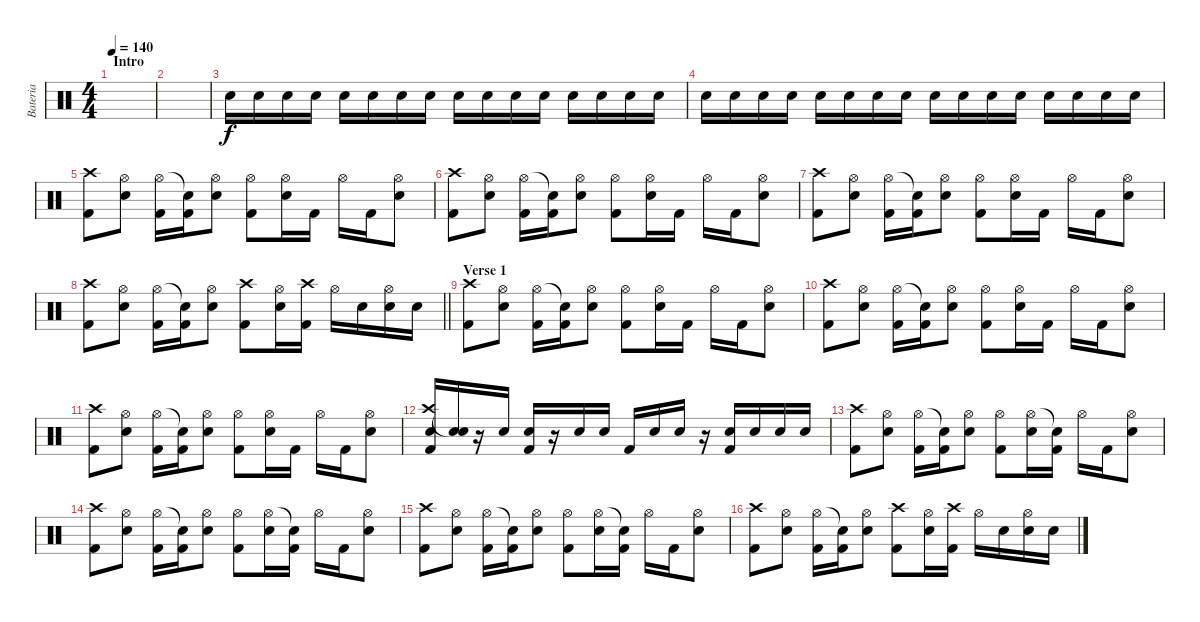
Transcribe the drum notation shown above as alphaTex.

\track ("Bateria" "Bateria") {instrument percussion}
\staff {score}
\articulation defaults
\ts (4 4)
\section ("" "Intro")
\tempo 140
\clef neutral
\ks c
|
|
"Electric Snare (hit)".16 "Electric Snare (hit)".16 "Electric Snare (hit)".16 "Electric Snare (hit)".16 "Electric Snare (hit)".16 "Electric Snare (hit)".16 "Electric Snare (hit)".16 "Electric Snare (hit)".16 "Electric Snare (hit)".16 "Electric Snare (hit)".16 "Electric Snare (hit)".16 "Electric Snare (hit)".16 "Electric Snare (hit)".16 "Electric Snare (hit)".16 "Electric Snare (hit)".16 "Electric Snare (hit)".16 |
"Electric Snare (hit)".16 "Electric Snare (hit)".16 "Electric Snare (hit)".16 "Electric Snare (hit)".16 "Electric Snare (hit)".16 "Electric Snare (hit)".16 "Electric Snare (hit)".16 "Electric Snare (hit)".16 "Electric Snare (hit)".16 "Electric Snare (hit)".16 "Electric Snare (hit)".16 "Electric Snare (hit)".16 "Electric Snare (hit)".16 "Electric Snare (hit)".16 "Electric Snare (hit)".16 "Electric Snare (hit)".16 |
("Crash high (hit)" "Kick (hit) 2").8 ("Hi-Hat (open)" "Electric Snare (hit)").8 ("Hi-Hat (open)" "Kick (hit) 2").16 ("Snare (hit)"{t} "Kick (hit) 2").16 ("Hi-Hat (open)" "Electric Snare (hit)").8 ("Hi-Hat (open)" "Kick (hit) 2").8 ("Hi-Hat (open)" "Electric Snare (hit)").16 "Kick (hit) 2".16 "Hi-Hat (open)".16 "Kick (hit) 2".16 ("Hi-Hat (open)" "Electric Snare (hit)").8 |
("Crash high (hit)" "Kick (hit) 2").8 ("Hi-Hat (open)" "Electric Snare (hit)").8 ("Hi-Hat (open)" "Kick (hit) 2").16 ("Snare (hit)"{t} "Kick (hit) 2").16 ("Hi-Hat (open)" "Electric Snare (hit)").8 ("Hi-Hat (open)" "Kick (hit) 2").8 ("Hi-Hat (open)" "Electric Snare (hit)").16 "Kick (hit) 2".16 "Hi-Hat (open)".16 "Kick (hit) 2".16 ("Hi-Hat (open)" "Electric Snare (hit)").8 |
("Crash high (hit)" "Kick (hit) 2").8 ("Hi-Hat (open)" "Electric Snare (hit)").8 ("Hi-Hat (open)" "Kick (hit) 2").16 ("Snare (hit)"{t} "Kick (hit) 2").16 ("Hi-Hat (open)" "Electric Snare (hit)").8 ("Hi-Hat (open)" "Kick (hit) 2").8 ("Hi-Hat (open)" "Electric Snare (hit)").16 "Kick (hit) 2".16 "Hi-Hat (open)".16 "Kick (hit) 2".16 ("Hi-Hat (open)" "Electric Snare (hit)").8 |
\barLineRight lightlight
("Crash high (hit)" "Kick (hit) 2").8 ("Hi-Hat (open)" "Electric Snare (hit)").8 ("Hi-Hat (open)" "Kick (hit) 2").16 ("Snare (hit)"{t} "Kick (hit) 2").16 ("Hi-Hat (open)" "Electric Snare (hit)").8 ("Crash high (hit)" "Kick (hit) 2").8 ("Hi-Hat (open)" "Electric Snare (hit)").16 ("Crash high (hit)" "Kick (hit) 2").16 "Hi-Hat (open)".16 "Electric Snare (hit)".16 ("Hi-Hat (open)" "Electric Snare (hit)").16 "Electric Snare (hit)".16 |
\section ("" "Verse 1")
("Crash high (hit)" "Kick (hit) 2").8 ("Hi-Hat (open)" "Electric Snare (hit)").8 ("Hi-Hat (open)" "Kick (hit) 2").16 ("Snare (hit)"{t} "Kick (hit) 2").16 ("Hi-Hat (open)" "Electric Snare (hit)").8 ("Hi-Hat (open)" "Kick (hit) 2").8 ("Hi-Hat (open)" "Electric Snare (hit)").16 "Kick (hit) 2".16 "Hi-Hat (open)".16 "Kick (hit) 2".16 ("Hi-Hat (open)" "Electric Snare (hit)").8 |
("Crash high (hit)" "Kick (hit) 2").8 ("Hi-Hat (open)" "Electric Snare (hit)").8 ("Hi-Hat (open)" "Kick (hit) 2").16 ("Snare (hit)"{t} "Kick (hit) 2").16 ("Hi-Hat (open)" "Electric Snare (hit)").8 ("Hi-Hat (open)" "Kick (hit) 2").8 ("Hi-Hat (open)" "Electric Snare (hit)").16 "Kick (hit) 2".16 "Hi-Hat (open)".16 "Kick (hit) 2".16 ("Hi-Hat (open)" "Electric Snare (hit)").8 |
("Crash high (hit)" "Kick (hit) 2").8 ("Hi-Hat (open)" "Electric Snare (hit)").8 ("Hi-Hat (open)" "Kick (hit) 2").16 ("Snare (hit)"{t} "Kick (hit) 2").16 ("Hi-Hat (open)" "Electric Snare (hit)").8 ("Hi-Hat (open)" "Kick (hit) 2").8 ("Hi-Hat (open)" "Electric Snare (hit)").16 "Kick (hit) 2".16 "Hi-Hat (open)".16 "Kick (hit) 2".16 ("Hi-Hat (open)" "Electric Snare (hit)").8 |
("Crash high (hit)" "Electric Snare (hit)" "Kick (hit) 2").16 ("Snare (hit)"{t} "Electric Snare (hit)").16 r.16 "Electric Snare (hit)".16 ("Electric Snare (hit)" "Kick (hit) 2").16 r.16 "Electric Snare (hit)".16 "Electric Snare (hit)".16 "Kick (hit) 2".16 "Electric Snare (hit)".16 "Electric Snare (hit)".16 r.16 ("Electric Snare (hit)" "Kick (hit) 2").16 "Electric Snare (hit)".16 "Electric Snare (hit)".16 "Electric Snare (hit)".16 |
("Crash high (hit)" "Kick (hit) 2").8 ("Hi-Hat (open)" "Electric Snare (hit)").8 ("Hi-Hat (open)" "Kick (hit) 2").16 ("Snare (hit)"{t} "Kick (hit) 2").16 ("Hi-Hat (open)" "Electric Snare (hit)").8 ("Hi-Hat (open)" "Kick (hit) 2").8 ("Hi-Hat (open)" "Electric Snare (hit)").16 ("Snare (hit)"{t} "Kick (hit) 2").16 "Hi-Hat (open)".16 "Kick (hit) 2".16 ("Hi-Hat (open)" "Electric Snare (hit)").8 |
("Crash high (hit)" "Kick (hit) 2").8 ("Hi-Hat (open)" "Electric Snare (hit)").8 ("Hi-Hat (open)" "Kick (hit) 2").16 ("Snare (hit)"{t} "Kick (hit) 2").16 ("Hi-Hat (open)" "Electric Snare (hit)").8 ("Hi-Hat (open)" "Kick (hit) 2").8 ("Hi-Hat (open)" "Electric Snare (hit)").16 ("Snare (hit)"{t} "Kick (hit) 2").16 "Hi-Hat (open)".16 "Kick (hit) 2".16 ("Hi-Hat (open)" "Electric Snare (hit)").8 |
("Crash high (hit)" "Kick (hit) 2").8 ("Hi-Hat (open)" "Electric Snare (hit)").8 ("Hi-Hat (open)" "Kick (hit) 2").16 ("Snare (hit)"{t} "Kick (hit) 2").16 ("Hi-Hat (open)" "Electric Snare (hit)").8 ("Hi-Hat (open)" "Kick (hit) 2").8 ("Hi-Hat (open)" "Electric Snare (hit)").16 ("Snare (hit)"{t} "Kick (hit) 2").16 "Hi-Hat (open)".16 "Kick (hit) 2".16 ("Hi-Hat (open)" "Electric Snare (hit)").8 |
("Crash high (hit)" "Kick (hit) 2").8 ("Hi-Hat (open)" "Electric Snare (hit)").8 ("Hi-Hat (open)" "Kick (hit) 2").16 ("Snare (hit)"{t} "Kick (hit) 2").16 ("Hi-Hat (open)" "Electric Snare (hit)").8 ("Crash high (hit)" "Kick (hit) 2").8 ("Hi-Hat (open)" "Electric Snare (hit)").16 ("Crash high (hit)" "Kick (hit) 2").16 "Hi-Hat (open)".16 "Electric Snare (hit)".16 ("Hi-Hat (open)" "Electric Snare (hit)").16 "Electric Snare (hit)".16
